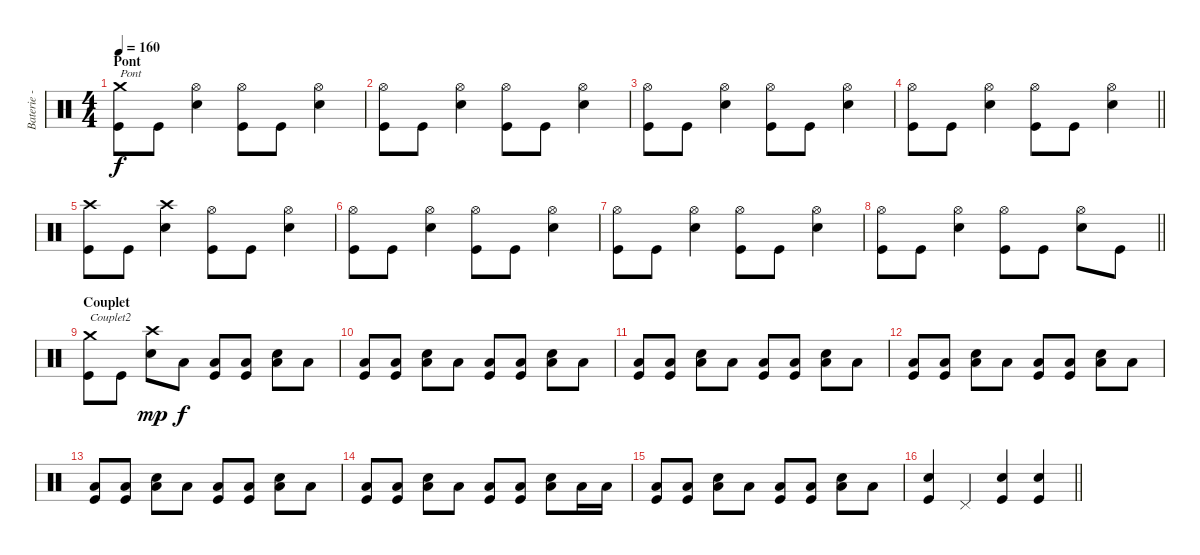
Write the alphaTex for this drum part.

\track ("Baterie - Alex" "Baterie - ") {instrument percussion}
\staff {score}
\articulation defaults
\ts (4 4)
\section ("" "Pont")
\tempo 160
\clef neutral
\ks c
("Crash medium (hit)" "Kick (hit)").8{txt "Pont" dy f} "Kick (hit)".8 ("Hi-Hat (open)" "Electric Snare (hit)").4 ("Hi-Hat (open)" "Kick (hit)").8 "Kick (hit)".8 ("Hi-Hat (open)" "Electric Snare (hit)").4 |
("Hi-Hat (open)" "Kick (hit)").8 "Kick (hit)".8 ("Hi-Hat (open)" "Electric Snare (hit)").4 ("Hi-Hat (open)" "Kick (hit)").8 "Kick (hit)".8 ("Hi-Hat (open)" "Electric Snare (hit)").4 |
("Hi-Hat (open)" "Kick (hit)").8 "Kick (hit)".8 ("Hi-Hat (open)" "Electric Snare (hit)").4 ("Hi-Hat (open)" "Kick (hit)").8 "Kick (hit)".8 ("Hi-Hat (open)" "Electric Snare (hit)").4 |
\barLineRight lightlight
("Hi-Hat (open)" "Kick (hit)").8 "Kick (hit)".8 ("Hi-Hat (open)" "Electric Snare (hit)").4 ("Hi-Hat (open)" "Kick (hit)").8 "Kick (hit)".8 ("Hi-Hat (open)" "Electric Snare (hit)").4 |
("Crash high (hit)" "Kick (hit)").8 "Kick (hit)".8 ("Crash high (hit)" "Electric Snare (hit)").4 ("Hi-Hat (open)" "Kick (hit)").8 "Kick (hit)".8 ("Hi-Hat (open)" "Electric Snare (hit)").4 |
("Hi-Hat (open)" "Kick (hit)").8 "Kick (hit)".8 ("Hi-Hat (open)" "Electric Snare (hit)").4 ("Hi-Hat (open)" "Kick (hit)").8 "Kick (hit)".8 ("Hi-Hat (open)" "Electric Snare (hit)").4 |
("Hi-Hat (open)" "Kick (hit)").8 "Kick (hit)".8 ("Hi-Hat (open)" "Electric Snare (hit)").4 ("Hi-Hat (open)" "Kick (hit)").8 "Kick (hit)".8 ("Hi-Hat (open)" "Electric Snare (hit)").4 |
\barLineRight lightlight
("Hi-Hat (open)" "Kick (hit)").8 "Kick (hit)".8 ("Hi-Hat (open)" "Electric Snare (hit)").4 ("Hi-Hat (open)" "Kick (hit)").8 "Kick (hit)".8 ("Hi-Hat (open)" "Electric Snare (hit)").8 "Kick (hit)".8 |
\section ("" "Couplet")
("Crash medium (hit)" "Kick (hit)").8{txt "Couplet2"} "Kick (hit)".8 ("Crash high (hit)" "Electric Snare (hit)").8{dy mp} "Low Floor Tom (hit)".8{dy f} ("Low Floor Tom (hit)" "Kick (hit)").8 ("Low Floor Tom (hit)" "Kick (hit)").8 ("Low Floor Tom (hit)" "Electric Snare (hit)").8 "Low Floor Tom (hit)".8 |
("Low Floor Tom (hit)" "Kick (hit)").8 ("Low Floor Tom (hit)" "Kick (hit)").8 ("Low Floor Tom (hit)" "Electric Snare (hit)").8 "Low Floor Tom (hit)".8 ("Low Floor Tom (hit)" "Kick (hit)").8 ("Low Floor Tom (hit)" "Kick (hit)").8 ("Low Floor Tom (hit)" "Electric Snare (hit)").8 "Low Floor Tom (hit)".8 |
("Low Floor Tom (hit)" "Kick (hit)").8 ("Low Floor Tom (hit)" "Kick (hit)").8 ("Low Floor Tom (hit)" "Electric Snare (hit)").8 "Low Floor Tom (hit)".8 ("Low Floor Tom (hit)" "Kick (hit)").8 ("Low Floor Tom (hit)" "Kick (hit)").8 ("Low Floor Tom (hit)" "Electric Snare (hit)").8 "Low Floor Tom (hit)".8 |
("Low Floor Tom (hit)" "Kick (hit)").8 ("Low Floor Tom (hit)" "Kick (hit)").8 ("Low Floor Tom (hit)" "Electric Snare (hit)").8 "Low Floor Tom (hit)".8 ("Low Floor Tom (hit)" "Kick (hit)").8 ("Low Floor Tom (hit)" "Kick (hit)").8 ("Low Floor Tom (hit)" "Electric Snare (hit)").8 "Low Floor Tom (hit)".8 |
("Low Floor Tom (hit)" "Kick (hit)").8 ("Low Floor Tom (hit)" "Kick (hit)").8 ("Low Floor Tom (hit)" "Electric Snare (hit)").8 "Low Floor Tom (hit)".8 ("Low Floor Tom (hit)" "Kick (hit)").8 ("Low Floor Tom (hit)" "Kick (hit)").8 ("Low Floor Tom (hit)" "Electric Snare (hit)").8 "Low Floor Tom (hit)".8 |
("Low Floor Tom (hit)" "Kick (hit)").8 ("Low Floor Tom (hit)" "Kick (hit)").8 ("Low Floor Tom (hit)" "Electric Snare (hit)").8 "Low Floor Tom (hit)".8 ("Low Floor Tom (hit)" "Kick (hit)").8 ("Low Floor Tom (hit)" "Kick (hit)").8 ("Low Floor Tom (hit)" "Electric Snare (hit)").8 "Low Floor Tom (hit)".16 "Low Floor Tom (hit)".16 |
("Low Floor Tom (hit)" "Kick (hit)").8 ("Low Floor Tom (hit)" "Kick (hit)").8 ("Low Floor Tom (hit)" "Electric Snare (hit)").8 "Low Floor Tom (hit)".8 ("Low Floor Tom (hit)" "Kick (hit)").8 ("Low Floor Tom (hit)" "Kick (hit)").8 ("Low Floor Tom (hit)" "Electric Snare (hit)").8 "Low Floor Tom (hit)".8 |
\barLineRight lightlight
("Electric Snare (hit)" "Kick (hit)").4 "Pedal Hi-Hat (hit)".4 ("Electric Snare (hit)" "Kick (hit)").4 ("Electric Snare (hit)" "Kick (hit)").4
